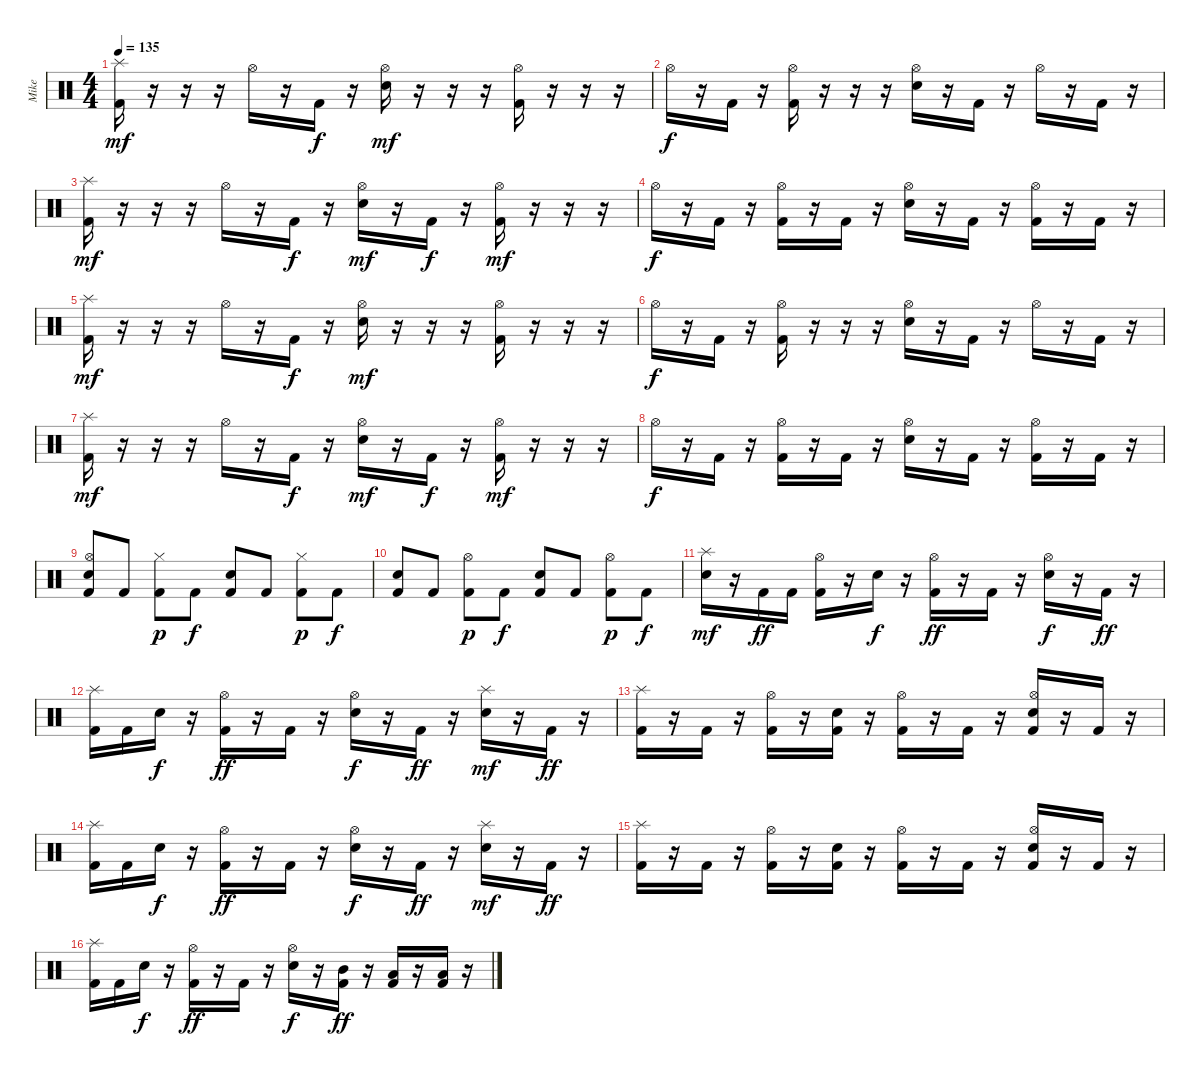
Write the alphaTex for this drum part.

\track ("Mike" "Mike") {instrument percussion}
\staff {score}
\articulation defaults
\ts (4 4)
\tempo 135
\clef neutral
\ks c
("Splash (hit)" "Kick (hit) 2").16{dy mf} r.16 r.16 r.16 "Hi-Hat (open)".16 r.16 "Kick (hit) 2".16{dy f} r.16 ("Hi-Hat (open)" "Snare (hit) 2").16{dy mf} r.16 r.16 r.16 ("Hi-Hat (open)" "Kick (hit) 2").16 r.16 r.16 r.16 |
"Hi-Hat (open)".16{dy f} r.16 "Kick (hit) 2".16 r.16 ("Hi-Hat (open)" "Kick (hit) 2").16 r.16 r.16 r.16 ("Hi-Hat (open)" "Snare (hit) 2").16 r.16 "Kick (hit) 2".16 r.16 "Hi-Hat (open)".16 r.16 "Kick (hit) 2".16 r.16 |
("Splash (hit)" "Kick (hit) 2").16{dy mf} r.16 r.16 r.16 "Hi-Hat (open)".16 r.16 "Kick (hit) 2".16{dy f} r.16 ("Hi-Hat (open)" "Snare (hit) 2").16{dy mf} r.16 "Kick (hit) 2".16{dy f} r.16 ("Hi-Hat (open)" "Kick (hit) 2").16{dy mf} r.16 r.16 r.16 |
"Hi-Hat (open)".16{dy f} r.16 "Kick (hit) 2".16 r.16 ("Hi-Hat (open)" "Kick (hit) 2").16 r.16 "Kick (hit) 2".16 r.16 ("Hi-Hat (open)" "Snare (hit) 2").16 r.16 "Kick (hit) 2".16 r.16 ("Hi-Hat (open)" "Kick (hit) 2").16 r.16 "Kick (hit) 2".16 r.16 |
("Splash (hit)" "Kick (hit) 2").16{dy mf} r.16 r.16 r.16 "Hi-Hat (open)".16 r.16 "Kick (hit) 2".16{dy f} r.16 ("Hi-Hat (open)" "Snare (hit) 2").16{dy mf} r.16 r.16 r.16 ("Hi-Hat (open)" "Kick (hit) 2").16 r.16 r.16 r.16 |
"Hi-Hat (open)".16{dy f} r.16 "Kick (hit) 2".16 r.16 ("Hi-Hat (open)" "Kick (hit) 2").16 r.16 r.16 r.16 ("Hi-Hat (open)" "Snare (hit) 2").16 r.16 "Kick (hit) 2".16 r.16 "Hi-Hat (open)".16 r.16 "Kick (hit) 2".16 r.16 |
("Splash (hit)" "Kick (hit) 2").16{dy mf} r.16 r.16 r.16 "Hi-Hat (open)".16 r.16 "Kick (hit) 2".16{dy f} r.16 ("Hi-Hat (open)" "Snare (hit) 2").16{dy mf} r.16 "Kick (hit) 2".16{dy f} r.16 ("Hi-Hat (open)" "Kick (hit) 2").16{dy mf} r.16 r.16 r.16 |
"Hi-Hat (open)".16{dy f} r.16 "Kick (hit) 2".16 r.16 ("Hi-Hat (open)" "Kick (hit) 2").16 r.16 "Kick (hit) 2".16 r.16 ("Hi-Hat (open)" "Snare (hit) 2").16 r.16 "Kick (hit) 2".16 r.16 ("Hi-Hat (open)" "Kick (hit) 2").16 r.16 "Kick (hit) 2".16 r.16 |
("Hi-Hat (open)" "Snare (hit) 2" "Kick (hit) 2").8 "Kick (hit) 2".8 ("Hi-Hat (closed)" "Kick (hit) 2").8{dy p} "Kick (hit) 2".8{dy f} ("Snare (hit) 2" "Kick (hit) 2").8 "Kick (hit) 2".8 ("Hi-Hat (closed)" "Kick (hit) 2").8{dy p} "Kick (hit) 2".8{dy f} |
("Snare (hit) 2" "Kick (hit) 2").8 "Kick (hit) 2".8 ("Hi-Hat (open)" "Kick (hit) 2").8{dy p} "Kick (hit) 2".8{dy f} ("Snare (hit) 2" "Kick (hit) 2").8 "Kick (hit) 2".8 ("Hi-Hat (open)" "Kick (hit) 2").8{dy p} "Kick (hit) 2".8{dy f} |
("Splash (hit)" "Snare (hit) 2").16{dy mf} r.16 "Kick (hit) 2".16{dy ff} "Kick (hit) 2".16 ("Hi-Hat (open)" "Kick (hit) 2").16 r.16 "Snare (hit) 2".16{dy f} r.16 ("Hi-Hat (open)" "Kick (hit) 2").16{dy ff} r.16 "Kick (hit) 2".16 r.16 ("Hi-Hat (open)" "Snare (hit) 2").16{dy f} r.16 "Kick (hit) 2".16{dy ff} r.16 |
("Splash (hit)" "Kick (hit) 2").16 "Kick (hit) 2".16 "Snare (hit) 2".16{dy f} r.16 ("Hi-Hat (open)" "Kick (hit) 2").16{dy ff} r.16 "Kick (hit) 2".16 r.16 ("Hi-Hat (open)" "Snare (hit) 2").16{dy f} r.16 "Kick (hit) 2".16{dy ff} r.16 ("Splash (hit)" "Snare (hit) 2").16{dy mf} r.16 "Kick (hit) 2".16{dy ff} r.16 |
("Splash (hit)" "Kick (hit) 2").16 r.16 "Kick (hit) 2".16 r.16 ("Hi-Hat (open)" "Kick (hit) 2").16 r.16 ("Snare (hit) 2" "Kick (hit) 2").16 r.16 ("Hi-Hat (open)" "Kick (hit) 2").16 r.16 "Kick (hit) 2".16 r.16 ("Hi-Hat (open)" "Snare (hit) 2" "Kick (hit) 2").16 r.16 "Kick (hit) 2".16 r.16 |
("Splash (hit)" "Kick (hit) 2").16 "Kick (hit) 2".16 "Snare (hit) 2".16{dy f} r.16 ("Hi-Hat (open)" "Kick (hit) 2").16{dy ff} r.16 "Kick (hit) 2".16 r.16 ("Hi-Hat (open)" "Snare (hit) 2").16{dy f} r.16 "Kick (hit) 2".16{dy ff} r.16 ("Splash (hit)" "Snare (hit) 2").16{dy mf} r.16 "Kick (hit) 2".16{dy ff} r.16 |
("Splash (hit)" "Kick (hit) 2").16 r.16 "Kick (hit) 2".16 r.16 ("Hi-Hat (open)" "Kick (hit) 2").16 r.16 ("Snare (hit) 2" "Kick (hit) 2").16 r.16 ("Hi-Hat (open)" "Kick (hit) 2").16 r.16 "Kick (hit) 2".16 r.16 ("Hi-Hat (open)" "Snare (hit) 2" "Kick (hit) 2").16 r.16 "Kick (hit) 2".16 r.16 |
("Splash (hit)" "Kick (hit) 2").16 "Kick (hit) 2".16 "Snare (hit) 2".16{dy f} r.16 ("Hi-Hat (open)" "Kick (hit) 2").16{dy ff} r.16 "Kick (hit) 2".16 r.16 ("Hi-Hat (open)" "Snare (hit) 2").16{dy f} r.16 ("Mid Tom (hit)" "Kick (hit) 2").16{dy ff} r.16 ("Low Tom (hit)" "Kick (hit) 2").16 r.16 ("Low Tom (hit)" "Kick (hit) 2").16 r.16
